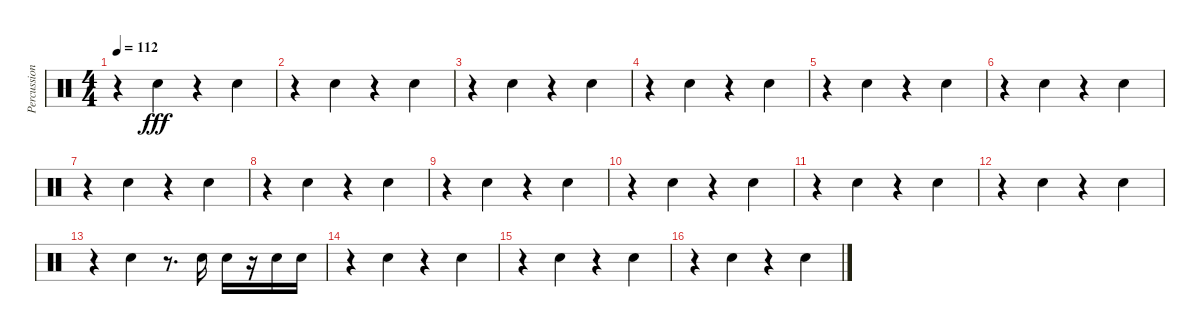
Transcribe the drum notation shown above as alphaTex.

\track ("Percussion" "Percussion") {instrument percussion}
\staff {score}
\articulation defaults
\ts (4 4)
\tempo 112
\clef neutral
\ks c
r.4{dy fff} "Snare (hit) 2".4 r.4 "Snare (hit) 2".4 |
r.4 "Snare (hit) 2".4 r.4 "Snare (hit) 2".4 |
r.4 "Snare (hit) 2".4 r.4 "Snare (hit) 2".4 |
r.4 "Snare (hit) 2".4 r.4 "Snare (hit) 2".4 |
r.4 "Snare (hit) 2".4 r.4 "Snare (hit) 2".4 |
r.4 "Snare (hit) 2".4 r.4 "Snare (hit) 2".4 |
r.4 "Snare (hit) 2".4 r.4 "Snare (hit) 2".4 |
r.4 "Snare (hit) 2".4 r.4 "Snare (hit) 2".4 |
r.4 "Snare (hit) 2".4 r.4 "Snare (hit) 2".4 |
r.4 "Snare (hit) 2".4 r.4 "Snare (hit) 2".4 |
r.4 "Snare (hit) 2".4 r.4 "Snare (hit) 2".4 |
r.4 "Snare (hit) 2".4 r.4 "Snare (hit) 2".4 |
r.4 "Snare (hit) 2".4 r.8{d} "Snare (hit) 2".16 "Snare (hit) 2".16 r.16 "Snare (hit) 2".16 "Snare (hit) 2".16 |
r.4 "Snare (hit) 2".4 r.4 "Snare (hit) 2".4 |
r.4 "Snare (hit) 2".4 r.4 "Snare (hit) 2".4 |
r.4 "Snare (hit) 2".4 r.4 "Snare (hit) 2".4
